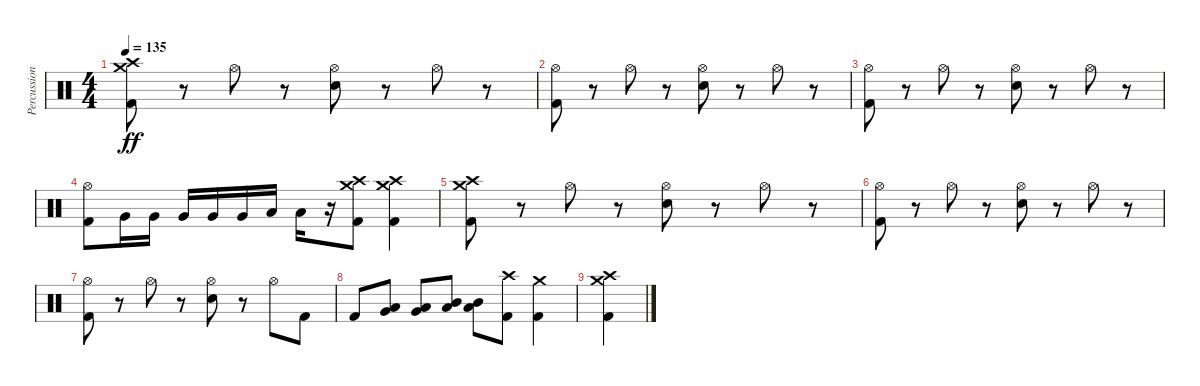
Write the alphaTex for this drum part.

\track ("Percussion" "Percussion") {instrument percussion}
\staff {score}
\articulation defaults
\ts (4 4)
\tempo 135
\clef neutral
\ks c
("Kick (hit) 2" "Crash medium (hit)" "Crash high (hit)").8{dy ff} r.8 "Hi-Hat (open)".8 r.8 ("Electric Snare (hit)" "Hi-Hat (open)").8 r.8 "Hi-Hat (open)".8 r.8 |
("Kick (hit) 2" "Hi-Hat (open)").8 r.8 "Hi-Hat (open)".8 r.8 ("Electric Snare (hit)" "Hi-Hat (open)").8 r.8 "Hi-Hat (open)".8 r.8 |
("Kick (hit) 2" "Hi-Hat (open)").8 r.8 "Hi-Hat (open)".8 r.8 ("Electric Snare (hit)" "Hi-Hat (open)").8 r.8 "Hi-Hat (open)".8 r.8 |
("Kick (hit) 2" "Hi-Hat (open)").8 "Very Low Tom (hit)".16 "Very Low Tom (hit)".16 "Very Low Tom (hit)".16 "Very Low Tom (hit)".16 "Very Low Tom (hit)".16 "Low Tom (hit)".16 "Low Tom (hit)".16 r.16 ("Kick (hit) 2" "Crash medium (hit)" "Crash high (hit)").8 ("Kick (hit) 2" "Crash medium (hit)" "Crash high (hit)").4 |
("Kick (hit) 2" "Crash medium (hit)" "Crash high (hit)").8 r.8 "Hi-Hat (open)".8 r.8 ("Electric Snare (hit)" "Hi-Hat (open)").8 r.8 "Hi-Hat (open)".8 r.8 |
("Kick (hit) 2" "Hi-Hat (open)").8 r.8 "Hi-Hat (open)".8 r.8 ("Electric Snare (hit)" "Hi-Hat (open)").8 r.8 "Hi-Hat (open)".8 r.8 |
("Kick (hit) 2" "Hi-Hat (open)").8 r.8 "Hi-Hat (open)".8 r.8 ("Electric Snare (hit)" "Hi-Hat (open)").8 r.8 "Hi-Hat (open)".8 "Kick (hit) 2".8 |
"Kick (hit) 2".8 ("Very Low Tom (hit)" "Low Tom (hit)").8 ("Very Low Tom (hit)" "Low Tom (hit)").8 ("Low Tom (hit)" "Mid Tom (hit)").8 ("Low Tom (hit)" "Mid Tom (hit)").8 ("Kick (hit) 2" "Crash high (hit)").8 ("Kick (hit) 2" "Crash medium (hit)").4 |
("Kick (hit) 2" "Crash medium (hit)" "Crash high (hit)").4
